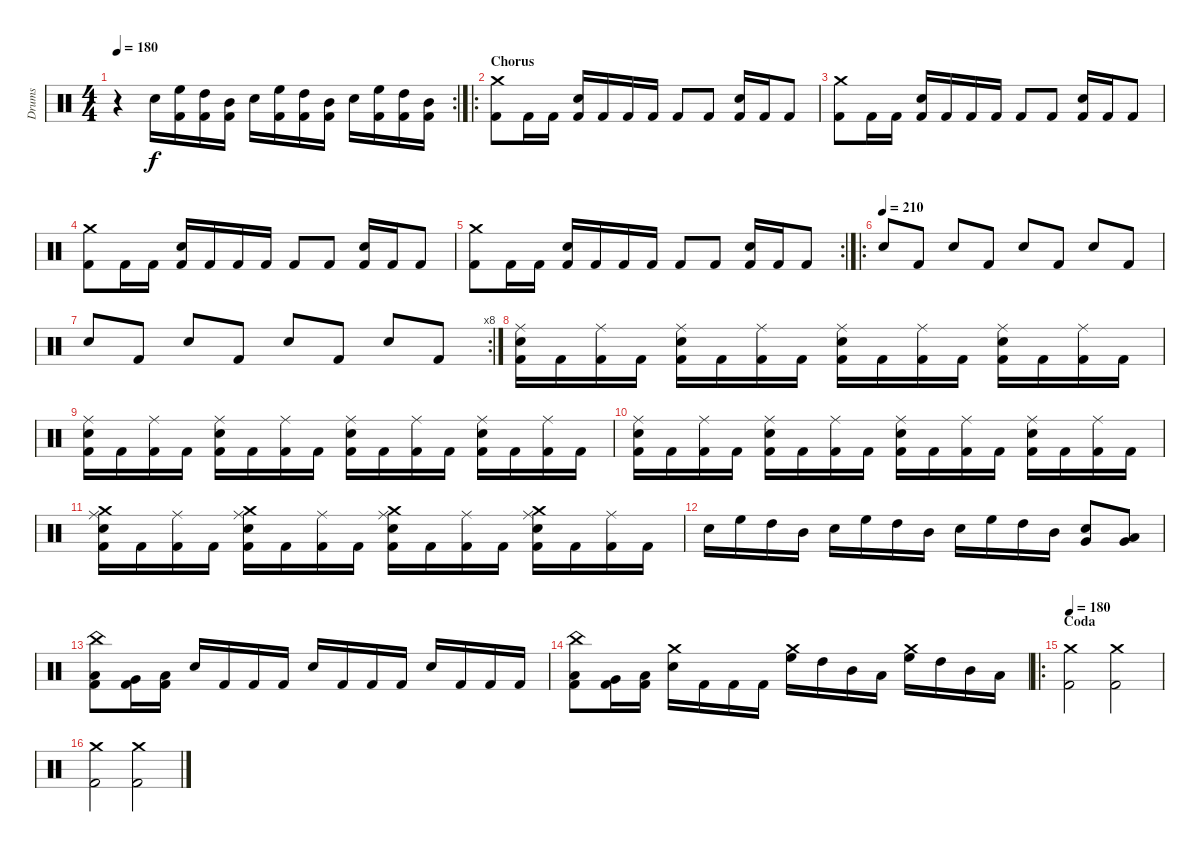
\track ("Drums" "Drums") {instrument percussion}
\staff {score}
\articulation defaults
\rc 2
\ts (4 4)
\tempo 180
\clef neutral
\ks c
r.4{dy f} "Electric Snare (hit)".16 ("High Floor Tom (hit)" "Kick (hit) 2").16 ("High Tom (hit)" "Kick (hit) 2").16 ("Mid Tom (hit)" "Kick (hit) 2").16 "Electric Snare (hit)".16 ("High Floor Tom (hit)" "Kick (hit) 2").16 ("High Tom (hit)" "Kick (hit) 2").16 ("Mid Tom (hit)" "Kick (hit) 2").16 "Electric Snare (hit)".16 ("High Floor Tom (hit)" "Kick (hit) 2").16 ("High Tom (hit)" "Kick (hit) 2").16 ("Mid Tom (hit)" "Kick (hit) 2").16 |
\ro
\section ("" "Chorus")
("Kick (hit) 2" "Crash medium (hit)").8 "Kick (hit) 2".16 "Kick (hit) 2".16 ("Kick (hit) 2" "Electric Snare (hit)").16 "Kick (hit) 2".16 "Kick (hit) 2".16 "Kick (hit) 2".16 "Kick (hit) 2".8 "Kick (hit) 2".8 ("Kick (hit) 2" "Electric Snare (hit)").16 "Kick (hit) 2".16 "Kick (hit) 2".8 |
("Kick (hit) 2" "Crash medium (hit)").8 "Kick (hit) 2".16 "Kick (hit) 2".16 ("Kick (hit) 2" "Electric Snare (hit)").16 "Kick (hit) 2".16 "Kick (hit) 2".16 "Kick (hit) 2".16 "Kick (hit) 2".8 "Kick (hit) 2".8 ("Kick (hit) 2" "Electric Snare (hit)").16 "Kick (hit) 2".16 "Kick (hit) 2".8 |
("Kick (hit) 2" "Crash medium (hit)").8 "Kick (hit) 2".16 "Kick (hit) 2".16 ("Kick (hit) 2" "Electric Snare (hit)").16 "Kick (hit) 2".16 "Kick (hit) 2".16 "Kick (hit) 2".16 "Kick (hit) 2".8 "Kick (hit) 2".8 ("Kick (hit) 2" "Electric Snare (hit)").16 "Kick (hit) 2".16 "Kick (hit) 2".8 |
\rc 2
("Kick (hit) 2" "Crash medium (hit)").8 "Kick (hit) 2".16 "Kick (hit) 2".16 ("Kick (hit) 2" "Electric Snare (hit)").16 "Kick (hit) 2".16 "Kick (hit) 2".16 "Kick (hit) 2".16 "Kick (hit) 2".8 "Kick (hit) 2".8 ("Kick (hit) 2" "Electric Snare (hit)").16 "Kick (hit) 2".16 "Kick (hit) 2".8 |
\ro
\tempo (210)
"Electric Snare (hit)".8 "Kick (hit) 2".8 "Electric Snare (hit)".8 "Kick (hit) 2".8 "Electric Snare (hit)".8 "Kick (hit) 2".8 "Electric Snare (hit)".8 "Kick (hit) 2".8 |
\rc 8 "Electric Snare (hit)".8 "Kick (hit) 2".8 "Electric Snare (hit)".8 "Kick (hit) 2".8 "Electric Snare (hit)".8 "Kick (hit) 2".8 "Electric Snare (hit)".8 "Kick (hit) 2".8
|
("Kick (hit) 2" "Electric Snare (hit)" "Ride (middle)").16 "Kick (hit) 2".16 ("Kick (hit) 2" "Ride (middle)").16 "Kick (hit) 2".16 ("Kick (hit) 2" "Electric Snare (hit)" "Ride (middle)").16 "Kick (hit) 2".16 ("Kick (hit) 2" "Ride (middle)").16 "Kick (hit) 2".16 ("Kick (hit) 2" "Electric Snare (hit)" "Ride (middle)").16 "Kick (hit) 2".16 ("Kick (hit) 2" "Ride (middle)").16 "Kick (hit) 2".16 ("Kick (hit) 2" "Electric Snare (hit)" "Ride (middle)").16 "Kick (hit) 2".16 ("Kick (hit) 2" "Ride (middle)").16 "Kick (hit) 2".16 |
("Kick (hit) 2" "Electric Snare (hit)" "Ride (middle)").16 "Kick (hit) 2".16 ("Kick (hit) 2" "Ride (middle)").16 "Kick (hit) 2".16 ("Kick (hit) 2" "Electric Snare (hit)" "Ride (middle)").16 "Kick (hit) 2".16 ("Kick (hit) 2" "Ride (middle)").16 "Kick (hit) 2".16 ("Kick (hit) 2" "Electric Snare (hit)" "Ride (middle)").16 "Kick (hit) 2".16 ("Kick (hit) 2" "Ride (middle)").16 "Kick (hit) 2".16 ("Kick (hit) 2" "Electric Snare (hit)" "Ride (middle)").16 "Kick (hit) 2".16 ("Kick (hit) 2" "Ride (middle)").16 "Kick (hit) 2".16 |
("Kick (hit) 2" "Electric Snare (hit)" "Ride (middle)").16 "Kick (hit) 2".16 ("Kick (hit) 2" "Ride (middle)").16 "Kick (hit) 2".16 ("Kick (hit) 2" "Electric Snare (hit)" "Ride (middle)").16 "Kick (hit) 2".16 ("Kick (hit) 2" "Ride (middle)").16 "Kick (hit) 2".16 ("Kick (hit) 2" "Electric Snare (hit)" "Ride (middle)").16 "Kick (hit) 2".16 ("Kick (hit) 2" "Ride (middle)").16 "Kick (hit) 2".16 ("Kick (hit) 2" "Electric Snare (hit)" "Ride (middle)").16 "Kick (hit) 2".16 ("Kick (hit) 2" "Ride (middle)").16 "Kick (hit) 2".16 |
("Kick (hit) 2" "Electric Snare (hit)" "Ride (middle)" "Crash medium (hit)").16 "Kick (hit) 2".16 ("Kick (hit) 2" "Ride (middle)").16 "Kick (hit) 2".16 ("Kick (hit) 2" "Electric Snare (hit)" "Ride (middle)" "Crash medium (hit)").16 "Kick (hit) 2".16 ("Kick (hit) 2" "Ride (middle)").16 "Kick (hit) 2".16 ("Kick (hit) 2" "Electric Snare (hit)" "Ride (middle)" "Crash medium (hit)").16 "Kick (hit) 2".16 ("Kick (hit) 2" "Ride (middle)").16 "Kick (hit) 2".16 ("Kick (hit) 2" "Electric Snare (hit)" "Ride (middle)" "Crash medium (hit)").16 "Kick (hit) 2".16 ("Kick (hit) 2" "Ride (middle)").16 "Kick (hit) 2".16 |
"Electric Snare (hit)".16 "High Floor Tom (hit)".16 "High Tom (hit)".16 "Mid Tom (hit)".16 "Electric Snare (hit)".16 "High Floor Tom (hit)".16 "High Tom (hit)".16 "Mid Tom (hit)".16 "Electric Snare (hit)".16 "High Floor Tom (hit)".16 "High Tom (hit)".16 "Mid Tom (hit)".16 ("Electric Snare (hit)" "Very Low Tom (hit)").8 ("Low Tom (hit)" "Very Low Tom (hit)").8 |
("China (hit)" "Kick (hit) 2" "Low Tom (hit)").8 ("Kick (hit) 2" "Very Low Tom (hit)").16 ("Kick (hit) 2" "Low Floor Tom (hit)").16 "Electric Snare (hit)".16 "Kick (hit) 2".16 "Kick (hit) 2".16 "Kick (hit) 2".16 "Electric Snare (hit)".16 "Kick (hit) 2".16 "Kick (hit) 2".16 "Kick (hit) 2".16 "Electric Snare (hit)".16 "Kick (hit) 2".16 "Kick (hit) 2".16 "Kick (hit) 2".16 |
("China (hit)" "Kick (hit) 2" "Low Tom (hit)").8 ("Kick (hit) 2" "Very Low Tom (hit)").16 ("Kick (hit) 2" "Low Floor Tom (hit)").16 ("Crash medium (hit)" "Electric Snare (hit)").16 "Kick (hit) 2".16 "Kick (hit) 2".16 "Kick (hit) 2".16 ("Crash medium (hit)" "High Floor Tom (hit)").16 "High Tom (hit)".16 "Mid Tom (hit)".16 "Low Tom (hit)".16 ("Crash medium (hit)" "High Floor Tom (hit)").16 "High Tom (hit)".16 "Mid Tom (hit)".16 "Low Tom (hit)".16 |
\ro
\section ("" "Coda")
\tempo 180
("Crash medium (hit)" "Kick (hit) 2").2 ("Crash medium (hit)" "Kick (hit) 2").2 |
("Crash medium (hit)" "Kick (hit) 2").2 ("Crash medium (hit)" "Kick (hit) 2").2
